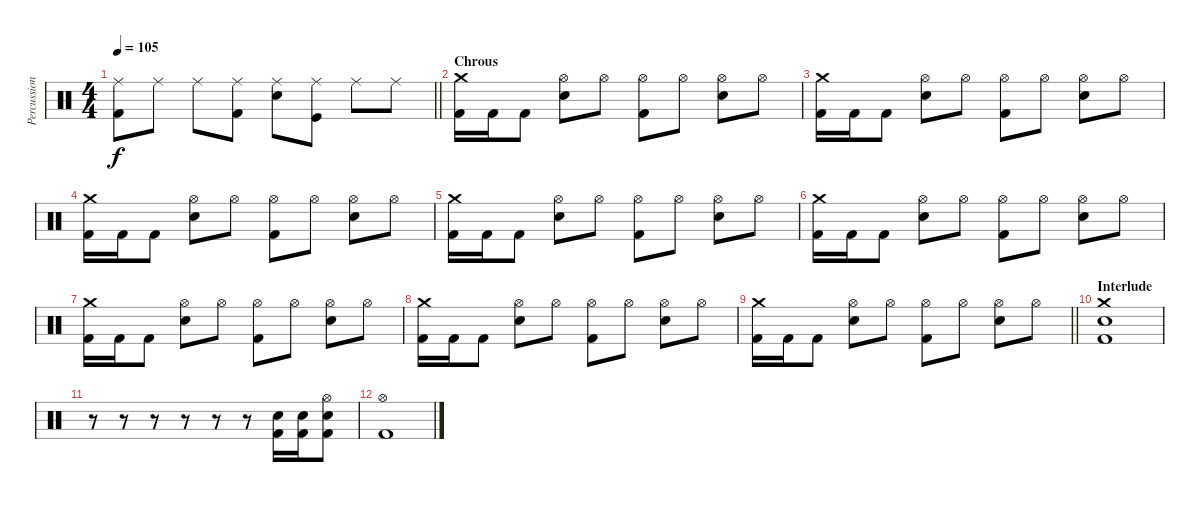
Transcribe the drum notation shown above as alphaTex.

\track ("Percussion" "Percussion") {instrument percussion}
\staff {score}
\articulation defaults
\ts (4 4)
\tempo 105
\clef neutral
\barLineRight lightlight
\ks c
("Ride (middle)" "Kick (hit) 2").8{dy f} "Ride (middle)".8 "Ride (middle)".8 ("Ride (middle)" "Kick (hit) 2").8 ("Ride (middle)" "Electric Snare (hit)").8 ("Ride (middle)" "Kick (hit)").8 "Ride (middle)".8 "Ride (middle)".8 |
\section ("" "Chrous")
("Crash medium (hit)" "Kick (hit) 2").16 "Kick (hit) 2".16 "Kick (hit) 2".8 ("Hi-Hat (open)" "Electric Snare (hit)").8 "Hi-Hat (open)".8 ("Hi-Hat (open)" "Kick (hit) 2").8 "Hi-Hat (open)".8 ("Hi-Hat (open)" "Electric Snare (hit)").8 "Hi-Hat (open)".8 |
("Crash medium (hit)" "Kick (hit) 2").16 "Kick (hit) 2".16 "Kick (hit) 2".8 ("Hi-Hat (open)" "Electric Snare (hit)").8 "Hi-Hat (open)".8 ("Hi-Hat (open)" "Kick (hit) 2").8 "Hi-Hat (open)".8 ("Hi-Hat (open)" "Electric Snare (hit)").8 "Hi-Hat (open)".8 |
("Crash medium (hit)" "Kick (hit) 2").16 "Kick (hit) 2".16 "Kick (hit) 2".8 ("Hi-Hat (open)" "Electric Snare (hit)").8 "Hi-Hat (open)".8 ("Hi-Hat (open)" "Kick (hit) 2").8 "Hi-Hat (open)".8 ("Hi-Hat (open)" "Electric Snare (hit)").8 "Hi-Hat (open)".8 |
("Crash medium (hit)" "Kick (hit) 2").16 "Kick (hit) 2".16 "Kick (hit) 2".8 ("Hi-Hat (open)" "Electric Snare (hit)").8 "Hi-Hat (open)".8 ("Hi-Hat (open)" "Kick (hit) 2").8 "Hi-Hat (open)".8 ("Hi-Hat (open)" "Electric Snare (hit)").8 "Hi-Hat (open)".8 |
("Crash medium (hit)" "Kick (hit) 2").16 "Kick (hit) 2".16 "Kick (hit) 2".8 ("Hi-Hat (open)" "Electric Snare (hit)").8 "Hi-Hat (open)".8 ("Hi-Hat (open)" "Kick (hit) 2").8 "Hi-Hat (open)".8 ("Hi-Hat (open)" "Electric Snare (hit)").8 "Hi-Hat (open)".8 |
("Crash medium (hit)" "Kick (hit) 2").16 "Kick (hit) 2".16 "Kick (hit) 2".8 ("Hi-Hat (open)" "Electric Snare (hit)").8 "Hi-Hat (open)".8 ("Hi-Hat (open)" "Kick (hit) 2").8 "Hi-Hat (open)".8 ("Hi-Hat (open)" "Electric Snare (hit)").8 "Hi-Hat (open)".8 |
("Crash medium (hit)" "Kick (hit) 2").16 "Kick (hit) 2".16 "Kick (hit) 2".8 ("Hi-Hat (open)" "Electric Snare (hit)").8 "Hi-Hat (open)".8 ("Hi-Hat (open)" "Kick (hit) 2").8 "Hi-Hat (open)".8 ("Hi-Hat (open)" "Electric Snare (hit)").8 "Hi-Hat (open)".8 |
\barLineRight lightlight
("Crash medium (hit)" "Kick (hit) 2").16 "Kick (hit) 2".16 "Kick (hit) 2".8 ("Hi-Hat (open)" "Electric Snare (hit)").8 "Hi-Hat (open)".8 ("Hi-Hat (open)" "Kick (hit) 2").8 "Hi-Hat (open)".8 ("Hi-Hat (open)" "Electric Snare (hit)").8 "Hi-Hat (open)".8 |
\section ("" "Interlude")
("Crash medium (hit)" "Electric Snare (hit)" "Kick (hit) 2").1 |
r.8 r.8 r.8 r.8 r.8 r.8 ("Electric Snare (hit)" "Kick (hit) 2").16 ("Electric Snare (hit)" "Kick (hit) 2").16 ("Hi-Hat (open)" "Electric Snare (hit)" "Kick (hit) 2").8 |
("Hi-Hat (open)" "Kick (hit) 2").1
